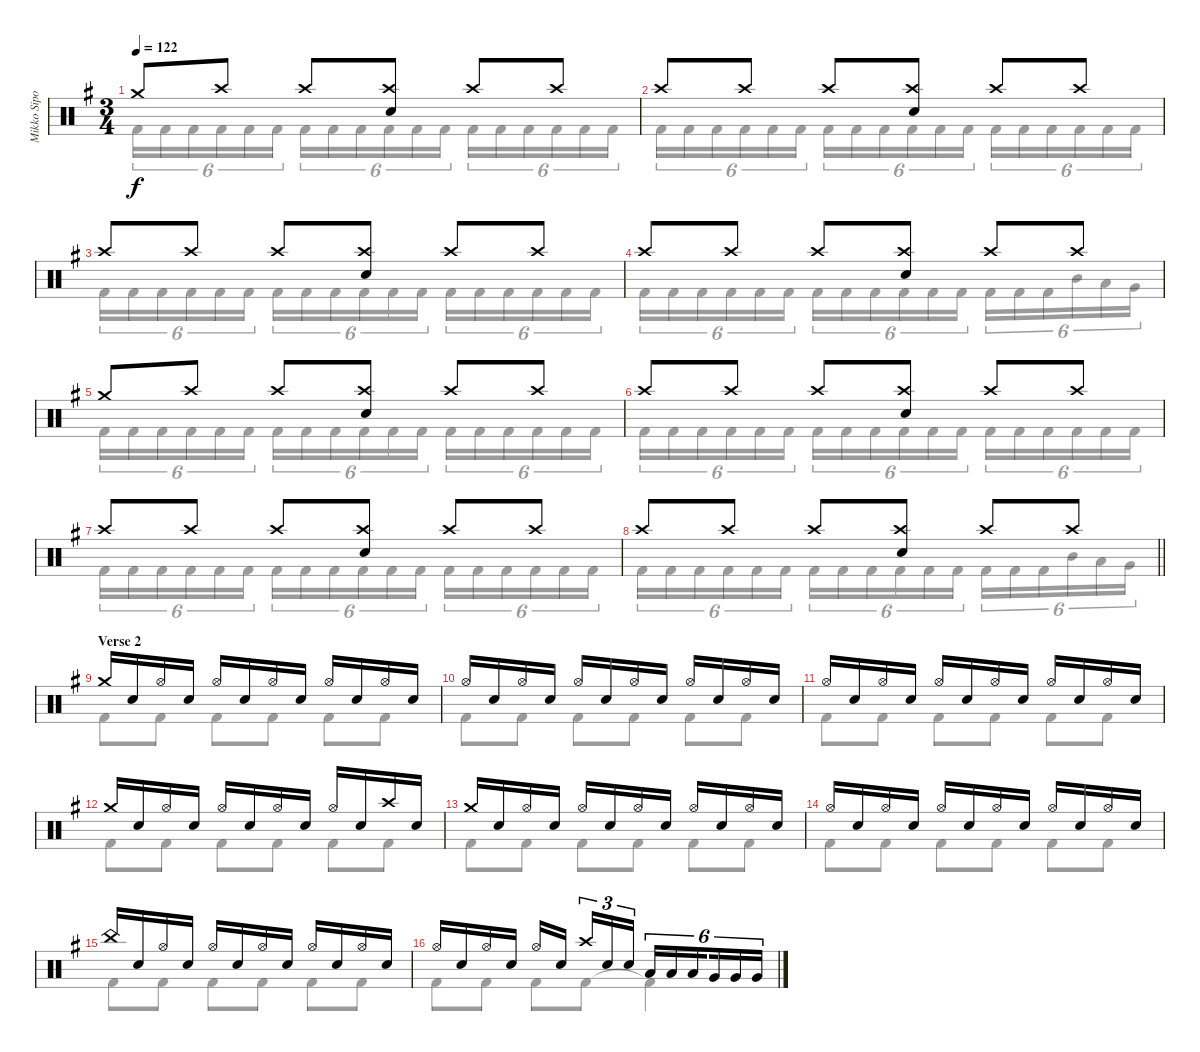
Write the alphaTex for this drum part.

\track ("Mikko Sipola - drums" "Mikko Sipo") {instrument percussion}
\staff {score}
\articulation defaults
\voice
\ts (3 4)
\tempo 122
\clef neutral
\ks eminor "Crash medium (hit)".8{dy f} "Crash high (hit)".8 "Crash high (hit)".8
("Snare (hit) 2" "Crash high (hit)").8 "Crash high (hit)".8 "Crash high (hit)".8 |
"Crash high (hit)".8 "Crash high (hit)".8 "Crash high (hit)".8 ("Snare (hit) 2" "Crash high (hit)").8 "Crash high (hit)".8 "Crash high (hit)".8 |
"Crash high (hit)".8 "Crash high (hit)".8 "Crash high (hit)".8 ("Snare (hit) 2" "Crash high (hit)").8 "Crash high (hit)".8 "Crash high (hit)".8 |
"Crash high (hit)".8 "Crash high (hit)".8 "Crash high (hit)".8 ("Snare (hit) 2" "Crash high (hit)").8 "Crash high (hit)".8 "Crash high (hit)".8 |
"Crash medium (hit)".8 "Crash high (hit)".8 "Crash high (hit)".8 ("Snare (hit) 2" "Crash high (hit)").8 "Crash high (hit)".8 "Crash high (hit)".8 |
"Crash high (hit)".8 "Crash high (hit)".8 "Crash high (hit)".8 ("Snare (hit) 2" "Crash high (hit)").8 "Crash high (hit)".8 "Crash high (hit)".8 |
"Crash high (hit)".8 "Crash high (hit)".8 "Crash high (hit)".8 ("Snare (hit) 2" "Crash high (hit)").8 "Crash high (hit)".8 "Crash high (hit)".8 |
\barLineRight lightlight "Crash high (hit)".8 "Crash high (hit)".8 "Crash high (hit)".8
("Snare (hit) 2" "Crash high (hit)").8 "Crash high (hit)".8 "Crash high (hit)".8 |
\section ("" "Verse 2")
"Crash medium (hit)".16 "Electric Snare (hit)".16 "Hi-Hat (open)".16 "Electric Snare (hit)".16 "Hi-Hat (open)".16 "Electric Snare (hit)".16 "Hi-Hat (open)".16 "Electric Snare (hit)".16 "Hi-Hat (open)".16 "Electric Snare (hit)".16 "Hi-Hat (open)".16 "Electric Snare (hit)".16 |
"Hi-Hat (open)".16 "Electric Snare (hit)".16 "Hi-Hat (open)".16 "Electric Snare (hit)".16 "Hi-Hat (open)".16 "Electric Snare (hit)".16 "Hi-Hat (open)".16 "Electric Snare (hit)".16 "Hi-Hat (open)".16 "Electric Snare (hit)".16 "Hi-Hat (open)".16 "Electric Snare (hit)".16 |
"Hi-Hat (open)".16 "Electric Snare (hit)".16 "Hi-Hat (open)".16 "Electric Snare (hit)".16 "Hi-Hat (open)".16 "Electric Snare (hit)".16 "Hi-Hat (open)".16 "Electric Snare (hit)".16 "Hi-Hat (open)".16 "Electric Snare (hit)".16 "Hi-Hat (open)".16 "Electric Snare (hit)".16 |
"Crash medium (hit)".16 "Electric Snare (hit)".16 "Hi-Hat (open)".16 "Electric Snare (hit)".16 "Hi-Hat (open)".16 "Electric Snare (hit)".16 "Hi-Hat (open)".16 "Electric Snare (hit)".16 "Hi-Hat (open)".16 "Electric Snare (hit)".16 "Crash high (hit)".16 "Electric Snare (hit)".16 |
"Crash medium (hit)".16 "Electric Snare (hit)".16 "Hi-Hat (open)".16 "Electric Snare (hit)".16 "Hi-Hat (open)".16 "Electric Snare (hit)".16 "Hi-Hat (open)".16 "Electric Snare (hit)".16 "Hi-Hat (open)".16 "Electric Snare (hit)".16 "Hi-Hat (open)".16 "Electric Snare (hit)".16 |
"Hi-Hat (open)".16 "Electric Snare (hit)".16 "Hi-Hat (open)".16 "Electric Snare (hit)".16 "Hi-Hat (open)".16 "Electric Snare (hit)".16 "Hi-Hat (open)".16 "Electric Snare (hit)".16 "Hi-Hat (open)".16 "Electric Snare (hit)".16 "Hi-Hat (open)".16 "Electric Snare (hit)".16 |
"China (hit)".16 "Electric Snare (hit)".16 "Hi-Hat (open)".16 "Electric Snare (hit)".16 "Hi-Hat (open)".16 "Electric Snare (hit)".16 "Hi-Hat (open)".16 "Electric Snare (hit)".16 "Hi-Hat (open)".16 "Electric Snare (hit)".16 "Hi-Hat (open)".16 "Electric Snare (hit)".16 |
"Hi-Hat (open)".16 "Electric Snare (hit)".16 "Hi-Hat (open)".16 "Electric Snare (hit)".16 "Hi-Hat (open)".16 "Electric Snare (hit)".16{beam splitsecondary} "Crash high (hit)".16{tu (3 2)} "Electric Snare (hit)".16{tu (3 2)} "Electric Snare (hit)".16{tu (3 2)} "Low Tom (hit)".16{tu (6 4)} "Low Tom (hit)".16{tu (6 4)} "Low Tom (hit)".16{tu (6 4) beam splitsecondary} "Very Low Tom (hit)".16{tu (6 4)} "Very Low Tom (hit)".16{tu (6 4)} "Very Low Tom (hit)".16{tu (6 4)}
\voice
\clef neutral
\ottava regular
\simile none
\ks eminor "Kick (hit) 2".16{tu (6 4) dy f} "Kick (hit) 2".16{tu (6 4)} "Kick (hit) 2".16{tu (6 4)} "Kick (hit) 2".16{tu (6 4)} "Kick (hit) 2".16{tu (6 4)} "Kick (hit) 2".16{tu (6 4)} "Kick (hit) 2".16{tu (6 4)} "Kick (hit) 2".16{tu (6 4)} "Kick (hit) 2".16{tu (6 4)} "Kick (hit) 2".16{tu (6 4)} "Kick (hit) 2".16{tu (6 4)} "Kick (hit) 2".16{tu (6 4)} "Kick (hit) 2".16{tu (6 4)} "Kick (hit) 2".16{tu (6 4)} "Kick (hit) 2".16{tu (6 4)} "Kick (hit) 2".16{tu (6 4)} "Kick (hit) 2".16{tu (6 4)} "Kick (hit) 2".16{tu (6 4)}
|
"Kick (hit) 2".16{tu (6 4)} "Kick (hit) 2".16{tu (6 4)} "Kick (hit) 2".16{tu (6 4)} "Kick (hit) 2".16{tu (6 4)} "Kick (hit) 2".16{tu (6 4)} "Kick (hit) 2".16{tu (6 4)} "Kick (hit) 2".16{tu (6 4)} "Kick (hit) 2".16{tu (6 4)} "Kick (hit) 2".16{tu (6 4)} "Kick (hit) 2".16{tu (6 4)} "Kick (hit) 2".16{tu (6 4)} "Kick (hit) 2".16{tu (6 4)} "Kick (hit) 2".16{tu (6 4)} "Kick (hit) 2".16{tu (6 4)} "Kick (hit) 2".16{tu (6 4)} "Kick (hit) 2".16{tu (6 4)} "Kick (hit) 2".16{tu (6 4)} "Kick (hit) 2".16{tu (6 4)} |
"Kick (hit) 2".16{tu (6 4)} "Kick (hit) 2".16{tu (6 4)} "Kick (hit) 2".16{tu (6 4)} "Kick (hit) 2".16{tu (6 4)} "Kick (hit) 2".16{tu (6 4)} "Kick (hit) 2".16{tu (6 4)} "Kick (hit) 2".16{tu (6 4)} "Kick (hit) 2".16{tu (6 4)} "Kick (hit) 2".16{tu (6 4)} "Kick (hit) 2".16{tu (6 4)} "Kick (hit) 2".16{tu (6 4)} "Kick (hit) 2".16{tu (6 4)} "Kick (hit) 2".16{tu (6 4)} "Kick (hit) 2".16{tu (6 4)} "Kick (hit) 2".16{tu (6 4)} "Kick (hit) 2".16{tu (6 4)} "Kick (hit) 2".16{tu (6 4)} "Kick (hit) 2".16{tu (6 4)} |
"Kick (hit) 2".16{tu (6 4)} "Kick (hit) 2".16{tu (6 4)} "Kick (hit) 2".16{tu (6 4)} "Kick (hit) 2".16{tu (6 4)} "Kick (hit) 2".16{tu (6 4)} "Kick (hit) 2".16{tu (6 4)} "Kick (hit) 2".16{tu (6 4)} "Kick (hit) 2".16{tu (6 4)} "Kick (hit) 2".16{tu (6 4)} "Kick (hit) 2".16{tu (6 4)} "Kick (hit) 2".16{tu (6 4)} "Kick (hit) 2".16{tu (6 4)} "Kick (hit) 2".16{tu (6 4)} "Kick (hit) 2".16{tu (6 4)} "Kick (hit) 2".16{tu (6 4)} "Mid Tom (hit)".16{tu (6 4)} "Low Tom (hit)".16{tu (6 4)} "Very Low Tom (hit)".16{tu (6 4)} |
"Kick (hit) 2".16{tu (6 4)} "Kick (hit) 2".16{tu (6 4)} "Kick (hit) 2".16{tu (6 4)} "Kick (hit) 2".16{tu (6 4)} "Kick (hit) 2".16{tu (6 4)} "Kick (hit) 2".16{tu (6 4)} "Kick (hit) 2".16{tu (6 4)} "Kick (hit) 2".16{tu (6 4)} "Kick (hit) 2".16{tu (6 4)} "Kick (hit) 2".16{tu (6 4)} "Kick (hit) 2".16{tu (6 4)} "Kick (hit) 2".16{tu (6 4)} "Kick (hit) 2".16{tu (6 4)} "Kick (hit) 2".16{tu (6 4)} "Kick (hit) 2".16{tu (6 4)} "Kick (hit) 2".16{tu (6 4)} "Kick (hit) 2".16{tu (6 4)} "Kick (hit) 2".16{tu (6 4)} |
"Kick (hit) 2".16{tu (6 4)} "Kick (hit) 2".16{tu (6 4)} "Kick (hit) 2".16{tu (6 4)} "Kick (hit) 2".16{tu (6 4)} "Kick (hit) 2".16{tu (6 4)} "Kick (hit) 2".16{tu (6 4)} "Kick (hit) 2".16{tu (6 4)} "Kick (hit) 2".16{tu (6 4)} "Kick (hit) 2".16{tu (6 4)} "Kick (hit) 2".16{tu (6 4)} "Kick (hit) 2".16{tu (6 4)} "Kick (hit) 2".16{tu (6 4)} "Kick (hit) 2".16{tu (6 4)} "Kick (hit) 2".16{tu (6 4)} "Kick (hit) 2".16{tu (6 4)} "Kick (hit) 2".16{tu (6 4)} "Kick (hit) 2".16{tu (6 4)} "Kick (hit) 2".16{tu (6 4)} |
"Kick (hit) 2".16{tu (6 4)} "Kick (hit) 2".16{tu (6 4)} "Kick (hit) 2".16{tu (6 4)} "Kick (hit) 2".16{tu (6 4)} "Kick (hit) 2".16{tu (6 4)} "Kick (hit) 2".16{tu (6 4)} "Kick (hit) 2".16{tu (6 4)} "Kick (hit) 2".16{tu (6 4)} "Kick (hit) 2".16{tu (6 4)} "Kick (hit) 2".16{tu (6 4)} "Kick (hit) 2".16{tu (6 4)} "Kick (hit) 2".16{tu (6 4)} "Kick (hit) 2".16{tu (6 4)} "Kick (hit) 2".16{tu (6 4)} "Kick (hit) 2".16{tu (6 4)} "Kick (hit) 2".16{tu (6 4)} "Kick (hit) 2".16{tu (6 4)} "Kick (hit) 2".16{tu (6 4)} |
\barLineRight lightlight "Kick (hit) 2".16{tu (6 4)} "Kick (hit) 2".16{tu (6 4)} "Kick (hit) 2".16{tu (6 4)} "Kick (hit) 2".16{tu (6 4)} "Kick (hit) 2".16{tu (6 4)} "Kick (hit) 2".16{tu (6 4)} "Kick (hit) 2".16{tu (6 4)} "Kick (hit) 2".16{tu (6 4)} "Kick (hit) 2".16{tu (6 4)} "Kick (hit) 2".16{tu (6 4)} "Kick (hit) 2".16{tu (6 4)} "Kick (hit) 2".16{tu (6 4)} "Kick (hit) 2".16{tu (6 4)} "Kick (hit) 2".16{tu (6 4)} "Kick (hit) 2".16{tu (6 4)} "Mid Tom (hit)".16{tu (6 4)} "Low Tom (hit)".16{tu (6 4)} "Very Low Tom (hit)".16{tu (6 4)}
|
"Kick (hit) 2".8 "Kick (hit) 2".8 "Kick (hit) 2".8 "Kick (hit) 2".8 "Kick (hit) 2".8 "Kick (hit) 2".8 |
"Kick (hit) 2".8 "Kick (hit) 2".8 "Kick (hit) 2".8 "Kick (hit) 2".8 "Kick (hit) 2".8 "Kick (hit) 2".8 |
"Kick (hit) 2".8 "Kick (hit) 2".8 "Kick (hit) 2".8 "Kick (hit) 2".8 "Kick (hit) 2".8 "Kick (hit) 2".8 |
"Kick (hit) 2".8 "Kick (hit) 2".8 "Kick (hit) 2".8 "Kick (hit) 2".8 "Kick (hit) 2".8 "Kick (hit) 2".8 |
"Kick (hit) 2".8 "Kick (hit) 2".8 "Kick (hit) 2".8 "Kick (hit) 2".8 "Kick (hit) 2".8 "Kick (hit) 2".8 |
"Kick (hit) 2".8 "Kick (hit) 2".8 "Kick (hit) 2".8 "Kick (hit) 2".8 "Kick (hit) 2".8 "Kick (hit) 2".8 |
"Kick (hit) 2".8 "Kick (hit) 2".8 "Kick (hit) 2".8 "Kick (hit) 2".8 "Kick (hit) 2".8 "Kick (hit) 2".8 |
"Kick (hit) 2".8 "Kick (hit) 2".8 "Kick (hit) 2".8 "Kick (hit) 2".8 "Kick (hit) 2"{t}.4
